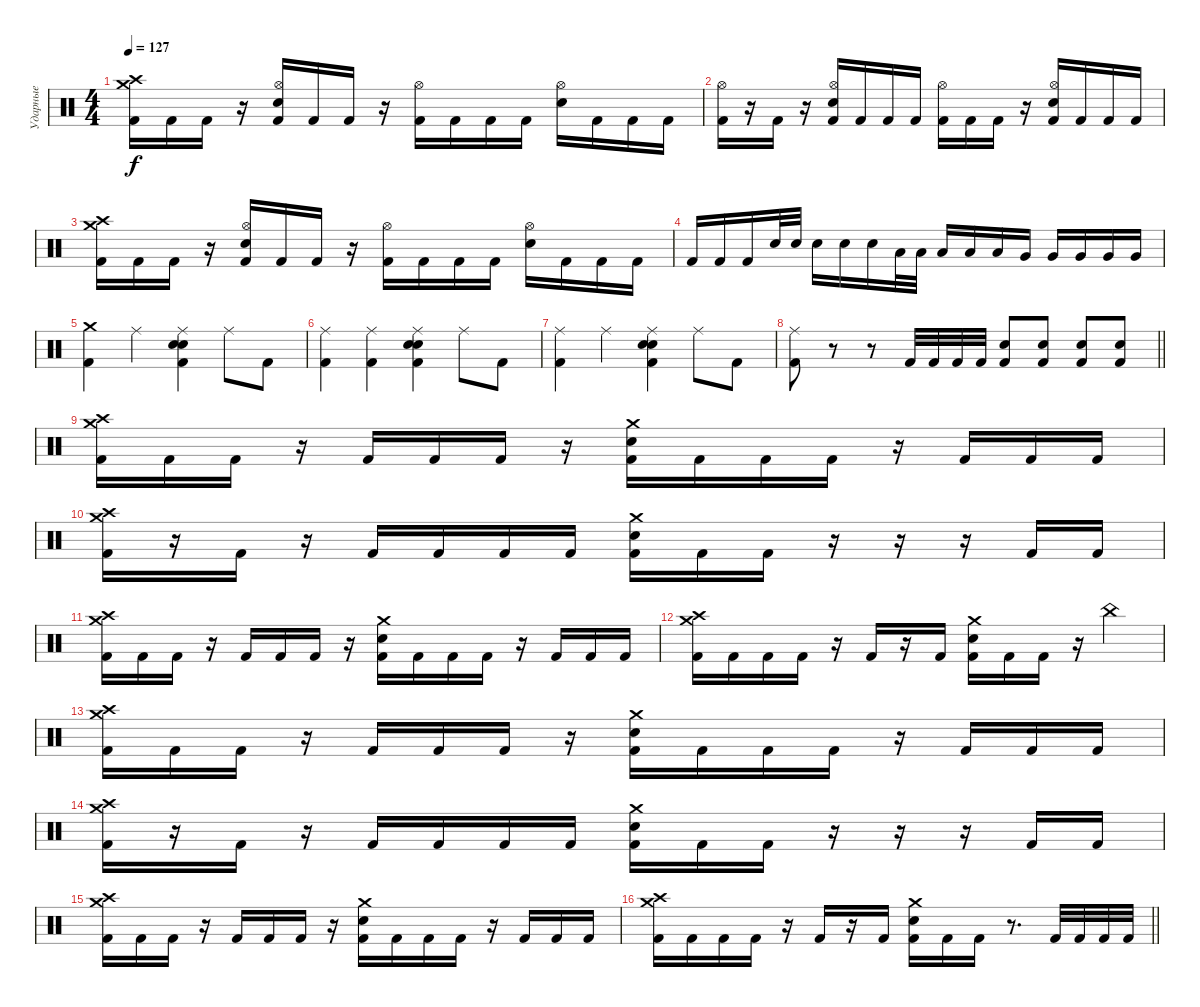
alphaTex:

\track ("Ударные" "Ударные") {instrument percussion}
\staff {score}
\articulation defaults
\ts (4 4)
\tempo 127
\clef neutral
\ks c
("Crash medium (hit)" "Crash high (hit)" "Kick (hit) 2").16{dy f} "Kick (hit) 2".16 "Kick (hit) 2".16 r.16 ("Hi-Hat (open)" "Electric Snare (hit)" "Kick (hit) 2").16 "Kick (hit) 2".16 "Kick (hit) 2".16 r.16 ("Hi-Hat (open)" "Kick (hit) 2").16 "Kick (hit) 2".16 "Kick (hit) 2".16 "Kick (hit) 2".16 ("Hi-Hat (open)" "Electric Snare (hit)").16 "Kick (hit) 2".16 "Kick (hit) 2".16 "Kick (hit) 2".16 |
("Hi-Hat (open)" "Kick (hit) 2").16 r.16 "Kick (hit) 2".16 r.16 ("Hi-Hat (open)" "Electric Snare (hit)" "Kick (hit) 2").16 "Kick (hit) 2".16 "Kick (hit) 2".16 "Kick (hit) 2".16 ("Hi-Hat (open)" "Kick (hit) 2").16 "Kick (hit) 2".16 "Kick (hit) 2".16 r.16 ("Hi-Hat (open)" "Electric Snare (hit)" "Kick (hit) 2").16 "Kick (hit) 2".16 "Kick (hit) 2".16 "Kick (hit) 2".16 |
("Crash medium (hit)" "Crash high (hit)" "Kick (hit) 2").16 "Kick (hit) 2".16 "Kick (hit) 2".16 r.16 ("Hi-Hat (open)" "Electric Snare (hit)" "Kick (hit) 2").16 "Kick (hit) 2".16 "Kick (hit) 2".16 r.16 ("Hi-Hat (open)" "Kick (hit) 2").16 "Kick (hit) 2".16 "Kick (hit) 2".16 "Kick (hit) 2".16 ("Hi-Hat (open)" "Electric Snare (hit)").16 "Kick (hit) 2".16 "Kick (hit) 2".16 "Kick (hit) 2".16 |
"Kick (hit) 2".16 "Kick (hit) 2".16 "Kick (hit) 2".16 "Electric Snare (hit)".32 "Electric Snare (hit)".32 "Electric Snare (hit)".16 "Electric Snare (hit)".16 "Electric Snare (hit)".16 "Low Tom (hit)".32 "Low Tom (hit)".32 "Low Tom (hit)".16 "Low Tom (hit)".16 "Low Tom (hit)".16 "Very Low Tom (hit)".16 "Very Low Tom (hit)".16 "Very Low Tom (hit)".16 "Very Low Tom (hit)".16 "Very Low Tom (hit)".16 |
("Crash medium (hit)" "Kick (hit) 2").4 "Ride (middle)".4 ("Ride (middle)" "Electric Snare (hit)" "Electric Snare (hit)" "Kick (hit) 2").4 "Ride (middle)".8 "Kick (hit) 2".8 |
("Ride (middle)" "Kick (hit) 2").4 ("Ride (middle)" "Kick (hit) 2").4 ("Ride (middle)" "Electric Snare (hit)" "Electric Snare (hit)" "Kick (hit) 2").4 "Ride (middle)".8 "Kick (hit) 2".8 |
("Ride (middle)" "Kick (hit) 2").4 "Ride (middle)".4 ("Ride (middle)" "Electric Snare (hit)" "Electric Snare (hit)" "Kick (hit) 2").4 "Ride (middle)".8 "Kick (hit) 2".8 |
\barLineRight lightlight
("Ride (middle)" "Kick (hit) 2").8 r.8 r.8 "Kick (hit) 2".32 "Kick (hit) 2".32 "Kick (hit) 2".32 "Kick (hit) 2".32 ("Electric Snare (hit)" "Kick (hit) 2").8 ("Electric Snare (hit)" "Kick (hit) 2").8 ("Electric Snare (hit)" "Kick (hit) 2").8 ("Electric Snare (hit)" "Kick (hit) 2").8 |
\section ("" "")
("Crash medium (hit)" "Crash high (hit)" "Kick (hit) 2").16 "Kick (hit) 2".16 "Kick (hit) 2".16 r.16 "Kick (hit) 2".16 "Kick (hit) 2".16 "Kick (hit) 2".16 r.16 ("Crash medium (hit)" "Electric Snare (hit)" "Kick (hit) 2").16 "Kick (hit) 2".16 "Kick (hit) 2".16 "Kick (hit) 2".16 r.16 "Kick (hit) 2".16 "Kick (hit) 2".16 "Kick (hit) 2".16 |
("Crash medium (hit)" "Crash high (hit)" "Kick (hit) 2").16 r.16 "Kick (hit) 2".16 r.16 "Kick (hit) 2".16 "Kick (hit) 2".16 "Kick (hit) 2".16 "Kick (hit) 2".16 ("Crash medium (hit)" "Electric Snare (hit)" "Kick (hit) 2").16 "Kick (hit) 2".16 "Kick (hit) 2".16 r.16 r.16 r.16 "Kick (hit) 2".16 "Kick (hit) 2".16 |
("Crash medium (hit)" "Crash high (hit)" "Kick (hit) 2").16 "Kick (hit) 2".16 "Kick (hit) 2".16 r.16 "Kick (hit) 2".16 "Kick (hit) 2".16 "Kick (hit) 2".16 r.16 ("Crash medium (hit)" "Electric Snare (hit)" "Kick (hit) 2").16 "Kick (hit) 2".16 "Kick (hit) 2".16 "Kick (hit) 2".16 r.16 "Kick (hit) 2".16 "Kick (hit) 2".16 "Kick (hit) 2".16 |
("Crash medium (hit)" "Crash high (hit)" "Kick (hit) 2").16 "Kick (hit) 2".16 "Kick (hit) 2".16 "Kick (hit) 2".16 r.16 "Kick (hit) 2".16 r.16 "Kick (hit) 2".16 ("Crash medium (hit)" "Electric Snare (hit)" "Kick (hit) 2").16 "Kick (hit) 2".16 "Kick (hit) 2".16 r.16 "China (hit)".4 |
("Crash medium (hit)" "Crash high (hit)" "Kick (hit) 2").16 "Kick (hit) 2".16 "Kick (hit) 2".16 r.16 "Kick (hit) 2".16 "Kick (hit) 2".16 "Kick (hit) 2".16 r.16 ("Crash medium (hit)" "Electric Snare (hit)" "Kick (hit) 2").16 "Kick (hit) 2".16 "Kick (hit) 2".16 "Kick (hit) 2".16 r.16 "Kick (hit) 2".16 "Kick (hit) 2".16 "Kick (hit) 2".16 |
("Crash medium (hit)" "Crash high (hit)" "Kick (hit) 2").16 r.16 "Kick (hit) 2".16 r.16 "Kick (hit) 2".16 "Kick (hit) 2".16 "Kick (hit) 2".16 "Kick (hit) 2".16 ("Crash medium (hit)" "Electric Snare (hit)" "Kick (hit) 2").16 "Kick (hit) 2".16 "Kick (hit) 2".16 r.16 r.16 r.16 "Kick (hit) 2".16 "Kick (hit) 2".16 |
("Crash medium (hit)" "Crash high (hit)" "Kick (hit) 2").16 "Kick (hit) 2".16 "Kick (hit) 2".16 r.16 "Kick (hit) 2".16 "Kick (hit) 2".16 "Kick (hit) 2".16 r.16 ("Crash medium (hit)" "Electric Snare (hit)" "Kick (hit) 2").16 "Kick (hit) 2".16 "Kick (hit) 2".16 "Kick (hit) 2".16 r.16 "Kick (hit) 2".16 "Kick (hit) 2".16 "Kick (hit) 2".16 |
\barLineRight lightlight
("Crash medium (hit)" "Crash high (hit)" "Kick (hit) 2").16 "Kick (hit) 2".16 "Kick (hit) 2".16 "Kick (hit) 2".16 r.16 "Kick (hit) 2".16 r.16 "Kick (hit) 2".16 ("Crash medium (hit)" "Electric Snare (hit)" "Kick (hit) 2").16 "Kick (hit) 2".16 "Kick (hit) 2".16 r.8{d} "Kick (hit) 2".32 "Kick (hit) 2".32 "Kick (hit) 2".32 "Kick (hit) 2".32
